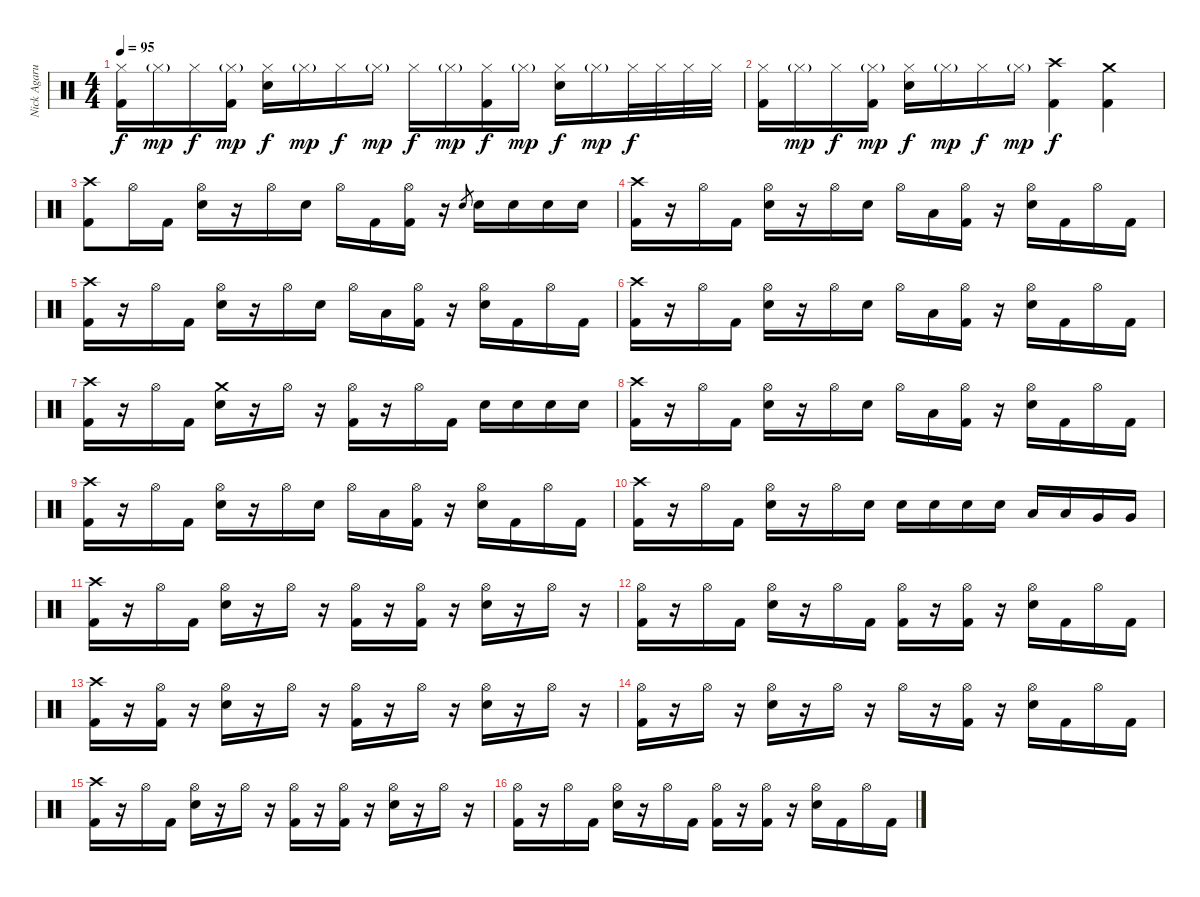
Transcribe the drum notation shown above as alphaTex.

\track ("Nick Agarua" "Nick Agaru") {instrument percussion}
\staff {score}
\articulation defaults
\ts (4 4)
\tempo 95
\clef neutral
\ks c
("Hi-Hat (closed)" "Kick (hit) 2").16{dy f} "Hi-Hat (closed)"{g}.16{dy mp} "Hi-Hat (closed)".16{dy f} ("Hi-Hat (closed)"{g} "Kick (hit) 2").16{dy mp} ("Hi-Hat (closed)" "Electric Snare (hit)").16{dy f} "Hi-Hat (closed)"{g}.16{dy mp} "Hi-Hat (closed)".16{dy f} "Hi-Hat (closed)"{g}.16{dy mp} "Hi-Hat (closed)".16{dy f} "Hi-Hat (closed)"{g}.16{dy mp} ("Hi-Hat (closed)" "Kick (hit) 2").16{dy f} "Hi-Hat (closed)"{g}.16{dy mp} ("Hi-Hat (closed)" "Electric Snare (hit)").16{dy f} "Hi-Hat (closed)"{g}.16{dy mp} "Hi-Hat (closed)".32{dy f} "Hi-Hat (closed)".32 "Hi-Hat (closed)".32 "Hi-Hat (closed)".32 |
("Hi-Hat (closed)" "Kick (hit) 2").16 "Hi-Hat (closed)"{g}.16{dy mp} "Hi-Hat (closed)".16{dy f} ("Hi-Hat (closed)"{g} "Kick (hit) 2").16{dy mp} ("Hi-Hat (closed)" "Electric Snare (hit)").16{dy f} "Hi-Hat (closed)"{g}.16{dy mp} "Hi-Hat (closed)".16{dy f} "Hi-Hat (closed)"{g}.16{dy mp} ("Crash high (hit)" "Kick (hit) 2").4{dy f} ("Crash medium (hit)" "Kick (hit) 2").4 |
("Crash high (hit)" "Kick (hit) 2").8 "Hi-Hat (open)".16 "Kick (hit) 2".16 ("Hi-Hat (open)" "Electric Snare (hit)").16 r.16 "Hi-Hat (open)".16 "Electric Snare (hit)".16 "Hi-Hat (open)".16 "Kick (hit) 2".16 ("Hi-Hat (open)" "Kick (hit) 2").16 r.16 "Electric Snare (hit)".8{gr} "Electric Snare (hit)".16 "Electric Snare (hit)".16 "Electric Snare (hit)".16 "Electric Snare (hit)".16 |
("Crash high (hit)" "Kick (hit) 2").16 r.16 "Hi-Hat (open)".16 "Kick (hit) 2".16 ("Hi-Hat (open)" "Electric Snare (hit)").16 r.16 "Hi-Hat (open)".16 "Electric Snare (hit)".16 "Hi-Hat (open)".16 "Low Tom (hit)".16 ("Hi-Hat (open)" "Kick (hit) 2").16 r.16 ("Hi-Hat (open)" "Electric Snare (hit)").16 "Kick (hit) 2".16 "Hi-Hat (open)".16 "Kick (hit) 2".16 |
("Crash high (hit)" "Kick (hit) 2").16 r.16 "Hi-Hat (open)".16 "Kick (hit) 2".16 ("Hi-Hat (open)" "Electric Snare (hit)").16 r.16 "Hi-Hat (open)".16 "Electric Snare (hit)".16 "Hi-Hat (open)".16 "Low Tom (hit)".16 ("Hi-Hat (open)" "Kick (hit) 2").16 r.16 ("Hi-Hat (open)" "Electric Snare (hit)").16 "Kick (hit) 2".16 "Hi-Hat (open)".16 "Kick (hit) 2".16 |
("Crash high (hit)" "Kick (hit) 2").16 r.16 "Hi-Hat (open)".16 "Kick (hit) 2".16 ("Hi-Hat (open)" "Electric Snare (hit)").16 r.16 "Hi-Hat (open)".16 "Electric Snare (hit)".16 "Hi-Hat (open)".16 "Low Tom (hit)".16 ("Hi-Hat (open)" "Kick (hit) 2").16 r.16 ("Hi-Hat (open)" "Electric Snare (hit)").16 "Kick (hit) 2".16 "Hi-Hat (open)".16 "Kick (hit) 2".16 |
("Crash high (hit)" "Kick (hit) 2").16 r.16 "Hi-Hat (open)".16 "Kick (hit) 2".16 ("Crash medium (hit)" "Electric Snare (hit)").16 r.16 "Hi-Hat (open)".16 r.16 ("Hi-Hat (open)" "Kick (hit) 2").16 r.16 "Hi-Hat (open)".16 "Kick (hit) 2".16 "Electric Snare (hit)".16 "Electric Snare (hit)".16 "Electric Snare (hit)".16 "Electric Snare (hit)".16 |
("Crash high (hit)" "Kick (hit) 2").16 r.16 "Hi-Hat (open)".16 "Kick (hit) 2".16 ("Hi-Hat (open)" "Electric Snare (hit)").16 r.16 "Hi-Hat (open)".16 "Electric Snare (hit)".16 "Hi-Hat (open)".16 "Low Tom (hit)".16 ("Hi-Hat (open)" "Kick (hit) 2").16 r.16 ("Hi-Hat (open)" "Electric Snare (hit)").16 "Kick (hit) 2".16 "Hi-Hat (open)".16 "Kick (hit) 2".16 |
("Crash high (hit)" "Kick (hit) 2").16 r.16 "Hi-Hat (open)".16 "Kick (hit) 2".16 ("Hi-Hat (open)" "Electric Snare (hit)").16 r.16 "Hi-Hat (open)".16 "Electric Snare (hit)".16 "Hi-Hat (open)".16 "Low Tom (hit)".16 ("Hi-Hat (open)" "Kick (hit) 2").16 r.16 ("Hi-Hat (open)" "Electric Snare (hit)").16 "Kick (hit) 2".16 "Hi-Hat (open)".16 "Kick (hit) 2".16 |
("Crash high (hit)" "Kick (hit) 2").16 r.16 "Hi-Hat (open)".16 "Kick (hit) 2".16 ("Hi-Hat (open)" "Electric Snare (hit)").16 r.16 "Hi-Hat (open)".16 "Electric Snare (hit)".16 "Electric Snare (hit)".16 "Electric Snare (hit)".16 "Electric Snare (hit)".16 "Electric Snare (hit)".16 "Low Tom (hit)".16 "Low Tom (hit)".16 "Very Low Tom (hit)".16 "Very Low Tom (hit)".16 |
("Crash high (hit)" "Kick (hit) 2").16 r.16 "Hi-Hat (open)".16 "Kick (hit) 2".16 ("Hi-Hat (open)" "Electric Snare (hit)").16 r.16 "Hi-Hat (open)".16 r.16 ("Hi-Hat (open)" "Kick (hit) 2").16 r.16 ("Hi-Hat (open)" "Kick (hit) 2").16 r.16 ("Hi-Hat (open)" "Electric Snare (hit)").16 r.16 "Hi-Hat (open)".16 r.16 |
("Hi-Hat (open)" "Kick (hit) 2").16 r.16 "Hi-Hat (open)".16 "Kick (hit) 2".16 ("Hi-Hat (open)" "Electric Snare (hit)").16 r.16 "Hi-Hat (open)".16 "Kick (hit) 2".16 ("Hi-Hat (open)" "Kick (hit) 2").16 r.16 ("Hi-Hat (open)" "Kick (hit) 2").16 r.16 ("Hi-Hat (open)" "Electric Snare (hit)").16 "Kick (hit) 2".16 "Hi-Hat (open)".16 "Kick (hit) 2".16 |
("Crash high (hit)" "Kick (hit) 2").16 r.16 ("Hi-Hat (open)" "Kick (hit) 2").16 r.16 ("Hi-Hat (open)" "Electric Snare (hit)").16 r.16 "Hi-Hat (open)".16 r.16 ("Hi-Hat (open)" "Kick (hit) 2").16 r.16 "Hi-Hat (open)".16 r.16 ("Hi-Hat (open)" "Electric Snare (hit)").16 r.16 "Hi-Hat (open)".16 r.16 |
("Hi-Hat (open)" "Kick (hit) 2").16 r.16 "Hi-Hat (open)".16 r.16 ("Hi-Hat (open)" "Electric Snare (hit)").16 r.16 "Hi-Hat (open)".16 r.16 "Hi-Hat (open)".16 r.16 ("Hi-Hat (open)" "Kick (hit) 2").16 r.16 ("Hi-Hat (open)" "Electric Snare (hit)").16 "Kick (hit) 2".16 "Hi-Hat (open)".16 "Kick (hit) 2".16 |
("Crash high (hit)" "Kick (hit) 2").16 r.16 "Hi-Hat (open)".16 "Kick (hit) 2".16 ("Hi-Hat (open)" "Electric Snare (hit)").16 r.16 "Hi-Hat (open)".16 r.16 ("Hi-Hat (open)" "Kick (hit) 2").16 r.16 ("Hi-Hat (open)" "Kick (hit) 2").16 r.16 ("Hi-Hat (open)" "Electric Snare (hit)").16 r.16 "Hi-Hat (open)".16 r.16 |
("Hi-Hat (open)" "Kick (hit) 2").16 r.16 "Hi-Hat (open)".16 "Kick (hit) 2".16 ("Hi-Hat (open)" "Electric Snare (hit)").16 r.16 "Hi-Hat (open)".16 "Kick (hit) 2".16 ("Hi-Hat (open)" "Kick (hit) 2").16 r.16 ("Hi-Hat (open)" "Kick (hit) 2").16 r.16 ("Hi-Hat (open)" "Electric Snare (hit)").16 "Kick (hit) 2".16 "Hi-Hat (open)".16 "Kick (hit) 2".16
